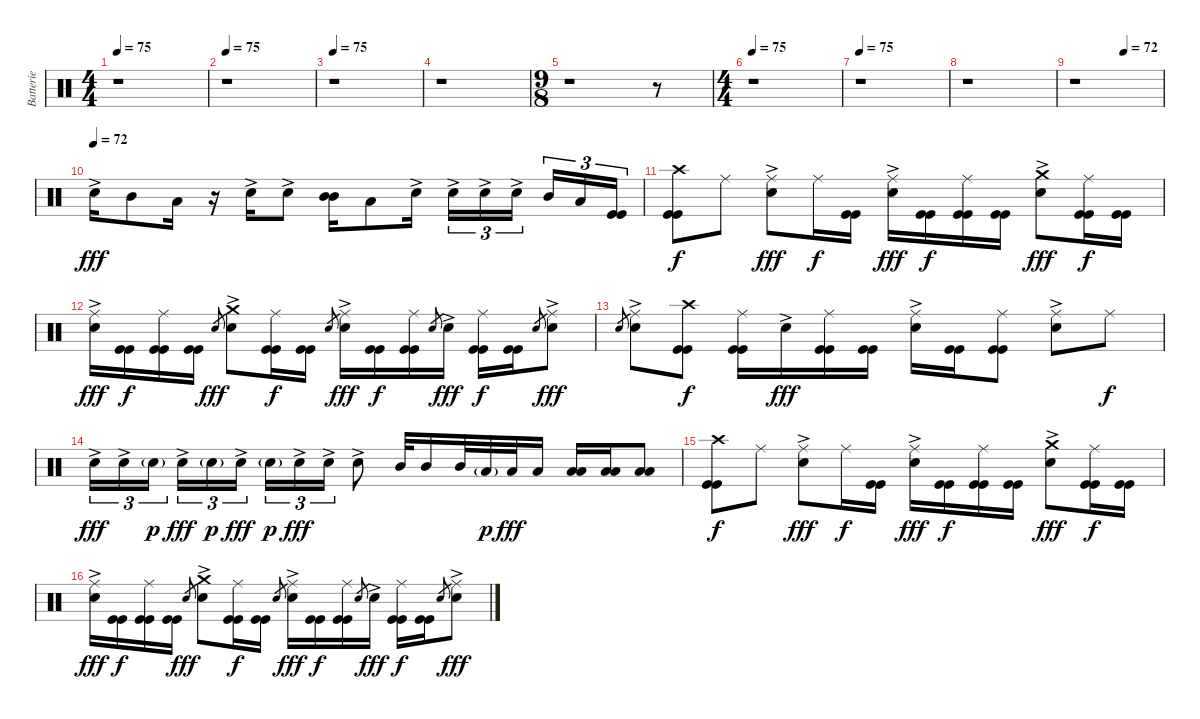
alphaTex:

\track ("Batterie" "Batterie") {instrument percussion}
\staff {score}
\articulation defaults
\ts (4 4)
\tempo 75
\clef neutral
\ks c
r.1{dy f} |
\tempo 75
r.1 |
\tempo 75
r.1 |
r.1 |
\ts (9 8)
r.1 r.8 |
\ts (4 4)
\tempo 75
r.1 |
\tempo 75
r.1 |
r.1 |
\tempo (72 0.5625)
r.1 |
\tempo (72)
"Electric Snare (hit)"{ac}.16{dy fff} "Mid Tom (hit)".8 "Low Tom (hit)".16 r.16 "Electric Snare (hit)"{ac}.16 "Electric Snare (hit)"{ac}.8 ("Mid Tom (hit)" "Mid Tom (hit)").16 "Low Tom (hit)".8 "Electric Snare (hit)"{ac}.16 "Electric Snare (hit)"{ac}.16{tu (3 2)} "Electric Snare (hit)"{ac}.16{tu (3 2)} "Electric Snare (hit)"{ac}.16{tu (3 2)} "Mid Tom (hit)".16{tu (3 2)} "Low Tom (hit)".16{tu (3 2)} ("Kick (hit)" "Kick (hit)").16{tu (3 2)} |
("Crash high (hit)" "Kick (hit)" "Kick (hit)").8{dy f} "Ride (middle)".8 ("Ride (middle)" "Electric Snare (hit)"{ac}).8{dy fff} "Ride (middle)".16{dy f} ("Kick (hit)" "Kick (hit)").16 ("Ride (middle)" "Electric Snare (hit)"{ac}).16{dy fff} ("Kick (hit)" "Kick (hit)").16{dy f} ("Ride (middle)" "Kick (hit)" "Kick (hit)").16 ("Kick (hit)" "Kick (hit)").16 ("Crash medium (hit)" "Electric Snare (hit)"{ac}).8{dy fff} ("Ride (middle)" "Kick (hit)" "Kick (hit)").16{dy f} ("Kick (hit)" "Kick (hit)").16 |
("Ride (middle)" "Electric Snare (hit)"{ac}).16{dy fff} ("Kick (hit)" "Kick (hit)").16{dy f} ("Ride (middle)" "Kick (hit)" "Kick (hit)").16 ("Kick (hit)" "Kick (hit)").16 "Electric Snare (hit)".8{gr dy fff} ("Crash medium (hit)" "Electric Snare (hit)"{ac}).8 ("Ride (middle)" "Kick (hit)" "Kick (hit)").16{dy f} ("Kick (hit)" "Kick (hit)").16 "Electric Snare (hit)".8{gr} ("Ride (middle)" "Electric Snare (hit)"{ac}).16{dy fff} ("Kick (hit)" "Kick (hit)").16{dy f} ("Ride (middle)" "Kick (hit)" "Kick (hit)").16 "Electric Snare (hit)".8{gr} "Electric Snare (hit)"{ac}.16{dy fff} ("Ride (middle)" "Kick (hit)" "Kick (hit)").16{dy f} ("Kick (hit)" "Kick (hit)").16 "Electric Snare (hit)".8{gr} ("Ride (middle)" "Electric Snare (hit)"{ac}).8{dy fff} |
"Electric Snare (hit)".8{gr} ("Ride (middle)" "Electric Snare (hit)"{ac}).8 ("Crash high (hit)" "Kick (hit)" "Kick (hit)").8{dy f} ("Ride (middle)" "Kick (hit)" "Kick (hit)").16 "Electric Snare (hit)"{ac}.16{dy fff} ("Ride (middle)" "Kick (hit)" "Kick (hit)").16 ("Kick (hit)" "Kick (hit)").16 ("Ride (middle)" "Electric Snare (hit)"{ac}).16 ("Kick (hit)" "Kick (hit)").16 ("Ride (middle)" "Kick (hit)" "Kick (hit)").8 ("Ride (middle)" "Electric Snare (hit)"{ac}).8 "Ride (middle)".8{dy f} |
"Electric Snare (hit)"{ac}.16{tu (3 2) dy fff} "Electric Snare (hit)"{ac}.16{tu (3 2)} "Electric Snare (hit)"{g}.16{tu (3 2) dy p} "Electric Snare (hit)"{ac}.16{tu (3 2) dy fff} "Electric Snare (hit)"{g}.16{tu (3 2) dy p} "Electric Snare (hit)"{ac}.16{tu (3 2) dy fff} "Electric Snare (hit)"{g}.16{tu (3 2) dy p} "Electric Snare (hit)"{ac}.16{tu (3 2) dy fff} "Electric Snare (hit)"{ac}.16{tu (3 2)} "Electric Snare (hit)"{ac}.8 "Mid Tom (hit)".32 "Mid Tom (hit)".16 "Mid Tom (hit)".32 "Low Tom (hit)"{g}.32{dy p} "Low Tom (hit)".32{dy fff} "Low Tom (hit)".16 ("Low Floor Tom (hit)" "Low Floor Tom (hit)").16 ("Low Floor Tom (hit)" "Low Floor Tom (hit)").16 ("Low Floor Tom (hit)" "Low Floor Tom (hit)").8 |
("Crash high (hit)" "Kick (hit)" "Kick (hit)").8{dy f} "Ride (middle)".8 ("Ride (middle)" "Electric Snare (hit)"{ac}).8{dy fff} "Ride (middle)".16{dy f} ("Kick (hit)" "Kick (hit)").16 ("Ride (middle)" "Electric Snare (hit)"{ac}).16{dy fff} ("Kick (hit)" "Kick (hit)").16{dy f} ("Ride (middle)" "Kick (hit)" "Kick (hit)").16 ("Kick (hit)" "Kick (hit)").16 ("Crash medium (hit)" "Electric Snare (hit)"{ac}).8{dy fff} ("Ride (middle)" "Kick (hit)" "Kick (hit)").16{dy f} ("Kick (hit)" "Kick (hit)").16 |
("Ride (middle)" "Electric Snare (hit)"{ac}).16{dy fff} ("Kick (hit)" "Kick (hit)").16{dy f} ("Ride (middle)" "Kick (hit)" "Kick (hit)").16 ("Kick (hit)" "Kick (hit)").16 "Electric Snare (hit)".8{gr dy fff} ("Crash medium (hit)" "Electric Snare (hit)"{ac}).8 ("Ride (middle)" "Kick (hit)" "Kick (hit)").16{dy f} ("Kick (hit)" "Kick (hit)").16 "Electric Snare (hit)".8{gr} ("Ride (middle)" "Electric Snare (hit)"{ac}).16{dy fff} ("Kick (hit)" "Kick (hit)").16{dy f} ("Ride (middle)" "Kick (hit)" "Kick (hit)").16 "Electric Snare (hit)".8{gr} "Electric Snare (hit)"{ac}.16{dy fff} ("Ride (middle)" "Kick (hit)" "Kick (hit)").16{dy f} ("Kick (hit)" "Kick (hit)").16 "Electric Snare (hit)".8{gr} ("Ride (middle)" "Electric Snare (hit)"{ac}).8{dy fff}
